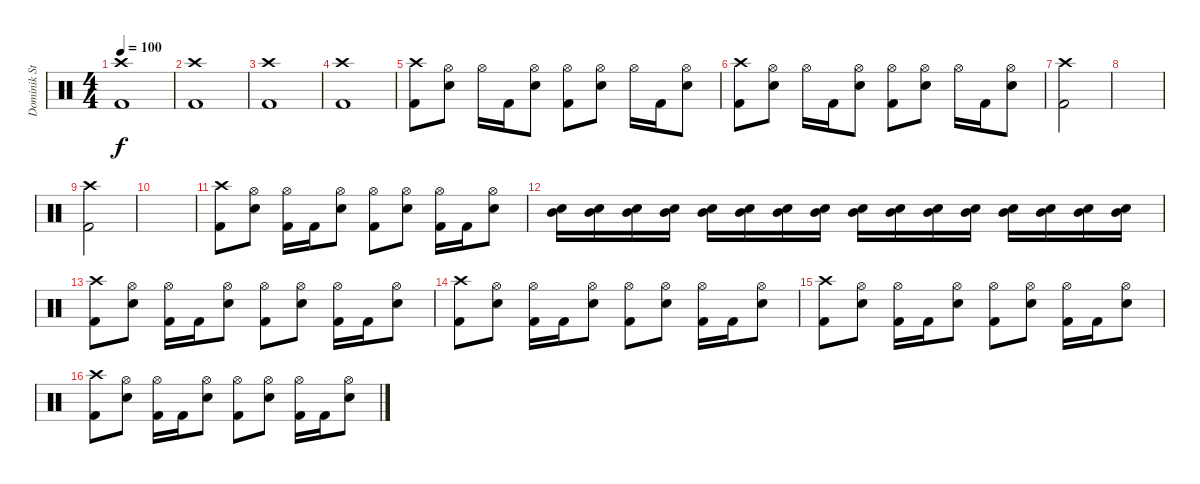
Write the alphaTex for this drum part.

\track ("Dominik Storch" "Dominik St") {instrument percussion}
\staff {score}
\articulation defaults
\ts (4 4)
\tempo 100
\clef neutral
\ks c
("Crash high (hit)" "Kick (hit) 2").1{dy f} |
("Crash high (hit)" "Kick (hit) 2").1 |
("Crash high (hit)" "Kick (hit) 2").1 |
("Crash high (hit)" "Kick (hit) 2").1 |
("Crash high (hit)" "Kick (hit) 2").8 ("Hi-Hat (open)" "Snare (hit) 2").8 "Hi-Hat (open)".16 "Kick (hit) 2".16 ("Hi-Hat (open)" "Snare (hit) 2").8 ("Hi-Hat (open)" "Kick (hit) 2").8 ("Hi-Hat (open)" "Snare (hit) 2").8 "Hi-Hat (open)".16 "Kick (hit) 2".16 ("Hi-Hat (open)" "Snare (hit) 2").8 |
("Crash high (hit)" "Kick (hit) 2").8 ("Hi-Hat (open)" "Snare (hit) 2").8 "Hi-Hat (open)".16 "Kick (hit) 2".16 ("Hi-Hat (open)" "Snare (hit) 2").8 ("Hi-Hat (open)" "Kick (hit) 2").8 ("Hi-Hat (open)" "Snare (hit) 2").8 "Hi-Hat (open)".16 "Kick (hit) 2".16 ("Hi-Hat (open)" "Snare (hit) 2").8 |
("Crash high (hit)" "Kick (hit) 2").2 |
|
("Crash high (hit)" "Kick (hit) 2").2 |
|
("Crash high (hit)" "Kick (hit) 2").8 ("Hi-Hat (open)" "Snare (hit) 2").8 ("Hi-Hat (open)" "Kick (hit) 2").16 "Kick (hit) 2".16 ("Hi-Hat (open)" "Snare (hit) 2").8 ("Hi-Hat (open)" "Kick (hit) 2").8 ("Hi-Hat (open)" "Snare (hit) 2").8 ("Hi-Hat (open)" "Kick (hit) 2").16 "Kick (hit) 2".16 ("Hi-Hat (open)" "Snare (hit) 2").8 |
("Mid Tom (hit)" "Snare (hit) 2").16 ("Mid Tom (hit)" "Snare (hit) 2").16 ("Mid Tom (hit)" "Snare (hit) 2").16 ("Mid Tom (hit)" "Snare (hit) 2").16 ("Mid Tom (hit)" "Snare (hit) 2").16 ("Mid Tom (hit)" "Snare (hit) 2").16 ("Mid Tom (hit)" "Snare (hit) 2").16 ("Mid Tom (hit)" "Snare (hit) 2").16 ("Mid Tom (hit)" "Snare (hit) 2").16 ("Mid Tom (hit)" "Snare (hit) 2").16 ("Mid Tom (hit)" "Snare (hit) 2").16 ("Mid Tom (hit)" "Snare (hit) 2").16 ("Mid Tom (hit)" "Snare (hit) 2").16 ("Mid Tom (hit)" "Snare (hit) 2").16 ("Mid Tom (hit)" "Snare (hit) 2").16 ("Mid Tom (hit)" "Snare (hit) 2").16 |
("Crash high (hit)" "Kick (hit) 2").8 ("Hi-Hat (open)" "Snare (hit) 2").8 ("Hi-Hat (open)" "Kick (hit) 2").16 "Kick (hit) 2".16 ("Hi-Hat (open)" "Snare (hit) 2").8 ("Hi-Hat (open)" "Kick (hit) 2").8 ("Hi-Hat (open)" "Snare (hit) 2").8 ("Hi-Hat (open)" "Kick (hit) 2").16 "Kick (hit) 2".16 ("Hi-Hat (open)" "Snare (hit) 2").8 |
("Crash high (hit)" "Kick (hit) 2").8 ("Hi-Hat (open)" "Snare (hit) 2").8 ("Hi-Hat (open)" "Kick (hit) 2").16 "Kick (hit) 2".16 ("Hi-Hat (open)" "Snare (hit) 2").8 ("Hi-Hat (open)" "Kick (hit) 2").8 ("Hi-Hat (open)" "Snare (hit) 2").8 ("Hi-Hat (open)" "Kick (hit) 2").16 "Kick (hit) 2".16 ("Hi-Hat (open)" "Snare (hit) 2").8 |
("Crash high (hit)" "Kick (hit) 2").8 ("Hi-Hat (open)" "Snare (hit) 2").8 ("Hi-Hat (open)" "Kick (hit) 2").16 "Kick (hit) 2".16 ("Hi-Hat (open)" "Snare (hit) 2").8 ("Hi-Hat (open)" "Kick (hit) 2").8 ("Hi-Hat (open)" "Snare (hit) 2").8 ("Hi-Hat (open)" "Kick (hit) 2").16 "Kick (hit) 2".16 ("Hi-Hat (open)" "Snare (hit) 2").8 |
("Crash high (hit)" "Kick (hit) 2").8 ("Hi-Hat (open)" "Snare (hit) 2").8 ("Hi-Hat (open)" "Kick (hit) 2").16 "Kick (hit) 2".16 ("Hi-Hat (open)" "Snare (hit) 2").8 ("Hi-Hat (open)" "Kick (hit) 2").8 ("Hi-Hat (open)" "Snare (hit) 2").8 ("Hi-Hat (open)" "Kick (hit) 2").16 "Kick (hit) 2".16 ("Hi-Hat (open)" "Snare (hit) 2").8
